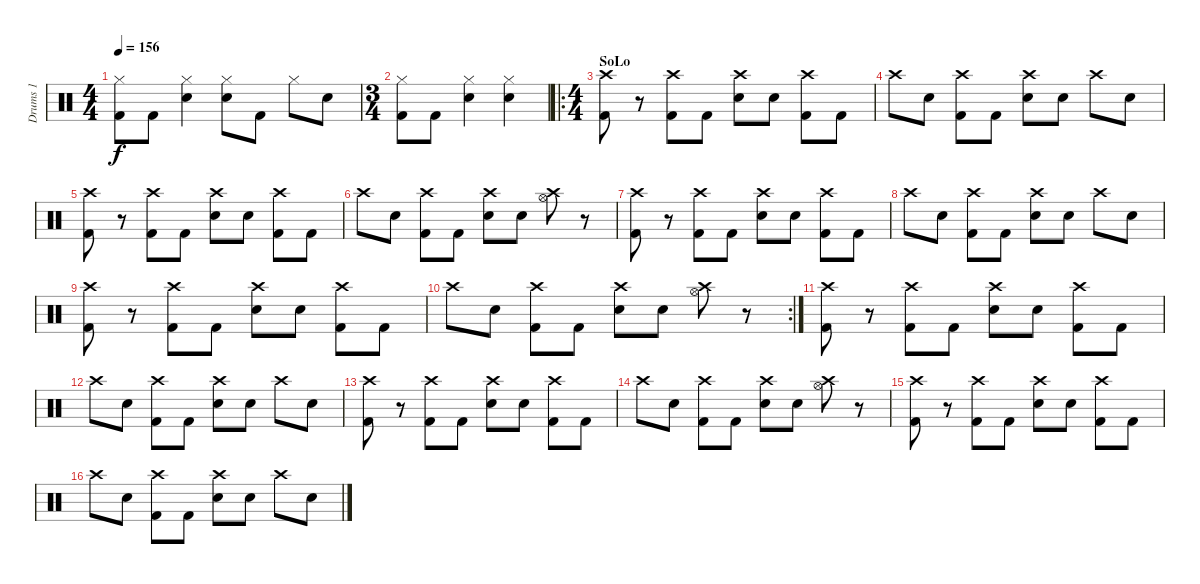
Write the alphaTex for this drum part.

\track ("Drums 1" "Drums 1") {instrument percussion}
\staff {score}
\articulation defaults
\ts (4 4)
\tempo 156
\clef neutral
\ks c
("Hi-Hat (closed)" "Kick (hit) 2").8{dy f} "Kick (hit) 2".8 ("Hi-Hat (closed)" "Snare (hit) 2").4 ("Hi-Hat (closed)" "Snare (hit) 2").8 "Kick (hit) 2".8 "Hi-Hat (closed)".8 "Snare (hit) 2".8 |
\ts (3 4)
("Hi-Hat (closed)" "Kick (hit) 2").8 "Kick (hit) 2".8 ("Hi-Hat (closed)" "Snare (hit) 2").4 ("Hi-Hat (closed)" "Snare (hit) 2").4 |
\ro
\ts (4 4)
\section ("" "SoLo")
("Crash high (hit)" "Kick (hit) 2").8 r.8 ("Crash high (hit)" "Kick (hit) 2").8 "Kick (hit) 2".8 ("Crash high (hit)" "Snare (hit) 2").8 "Snare (hit) 2".8 ("Crash high (hit)" "Kick (hit) 2").8 "Kick (hit) 2".8 |
"Crash high (hit)".8 "Snare (hit) 2".8 ("Crash high (hit)" "Kick (hit) 2").8 "Kick (hit) 2".8 ("Crash high (hit)" "Snare (hit) 2").8 "Snare (hit) 2".8 "Crash high (hit)".8 "Snare (hit) 2".8 |
("Crash high (hit)" "Kick (hit) 2").8 r.8 ("Crash high (hit)" "Kick (hit) 2").8 "Kick (hit) 2".8 ("Crash high (hit)" "Snare (hit) 2").8 "Snare (hit) 2".8 ("Crash high (hit)" "Kick (hit) 2").8 "Kick (hit) 2".8 |
"Crash high (hit)".8 "Snare (hit) 2".8 ("Crash high (hit)" "Kick (hit) 2").8 "Kick (hit) 2".8 ("Crash high (hit)" "Snare (hit) 2").8 "Snare (hit) 2".8 ("Crash high (hit)" "Hi-Hat (open)").8 r.8 |
("Crash high (hit)" "Kick (hit) 2").8 r.8 ("Crash high (hit)" "Kick (hit) 2").8 "Kick (hit) 2".8 ("Crash high (hit)" "Snare (hit) 2").8 "Snare (hit) 2".8 ("Crash high (hit)" "Kick (hit) 2").8 "Kick (hit) 2".8 |
"Crash high (hit)".8 "Snare (hit) 2".8 ("Crash high (hit)" "Kick (hit) 2").8 "Kick (hit) 2".8 ("Crash high (hit)" "Snare (hit) 2").8 "Snare (hit) 2".8 "Crash high (hit)".8 "Snare (hit) 2".8 |
("Crash high (hit)" "Kick (hit) 2").8 r.8 ("Crash high (hit)" "Kick (hit) 2").8 "Kick (hit) 2".8 ("Crash high (hit)" "Snare (hit) 2").8 "Snare (hit) 2".8 ("Crash high (hit)" "Kick (hit) 2").8 "Kick (hit) 2".8 |
\rc 2 "Crash high (hit)".8 "Snare (hit) 2".8
("Crash high (hit)" "Kick (hit) 2").8 "Kick (hit) 2".8 ("Crash high (hit)" "Snare (hit) 2").8 "Snare (hit) 2".8 ("Crash high (hit)" "Hi-Hat (open)").8 r.8 |
("Crash high (hit)" "Kick (hit) 2").8 r.8 ("Crash high (hit)" "Kick (hit) 2").8 "Kick (hit) 2".8 ("Crash high (hit)" "Snare (hit) 2").8 "Snare (hit) 2".8 ("Crash high (hit)" "Kick (hit) 2").8 "Kick (hit) 2".8 |
"Crash high (hit)".8 "Snare (hit) 2".8 ("Crash high (hit)" "Kick (hit) 2").8 "Kick (hit) 2".8 ("Crash high (hit)" "Snare (hit) 2").8 "Snare (hit) 2".8 "Crash high (hit)".8 "Snare (hit) 2".8 |
("Crash high (hit)" "Kick (hit) 2").8 r.8 ("Crash high (hit)" "Kick (hit) 2").8 "Kick (hit) 2".8 ("Crash high (hit)" "Snare (hit) 2").8 "Snare (hit) 2".8 ("Crash high (hit)" "Kick (hit) 2").8 "Kick (hit) 2".8 |
"Crash high (hit)".8 "Snare (hit) 2".8 ("Crash high (hit)" "Kick (hit) 2").8 "Kick (hit) 2".8 ("Crash high (hit)" "Snare (hit) 2").8 "Snare (hit) 2".8 ("Crash high (hit)" "Hi-Hat (open)").8 r.8 |
("Crash high (hit)" "Kick (hit) 2").8 r.8 ("Crash high (hit)" "Kick (hit) 2").8 "Kick (hit) 2".8 ("Crash high (hit)" "Snare (hit) 2").8 "Snare (hit) 2".8 ("Crash high (hit)" "Kick (hit) 2").8 "Kick (hit) 2".8 |
"Crash high (hit)".8 "Snare (hit) 2".8 ("Crash high (hit)" "Kick (hit) 2").8 "Kick (hit) 2".8 ("Crash high (hit)" "Snare (hit) 2").8 "Snare (hit) 2".8 "Crash high (hit)".8 "Snare (hit) 2".8
